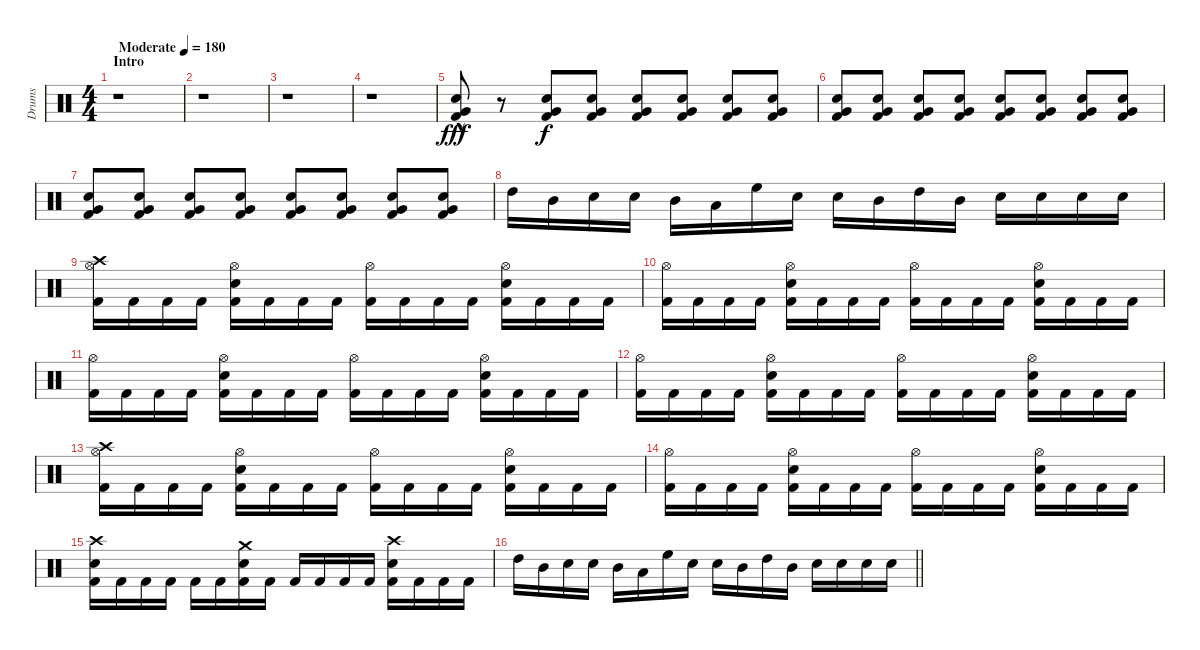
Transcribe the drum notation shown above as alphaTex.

\track ("Drums" "Drums") {instrument percussion}
\staff {score}
\articulation defaults
\ts (4 4)
\section ("" "Intro")
\tempo (180 "Moderate")
\clef neutral
\ks c
r.1{dy fff} |
r.1 |
r.1 |
r.1 |
("Very Low Tom (hit)"{hac} "Electric Snare (hit)"{hac} "Kick (hit) 2"{hac}).8 r.8{volume 0} ("Very Low Tom (hit)" "Electric Snare (hit)" "Kick (hit) 2").8{dy f volume 16} ("Very Low Tom (hit)" "Electric Snare (hit)" "Kick (hit) 2").8 ("Very Low Tom (hit)" "Electric Snare (hit)" "Kick (hit) 2").8 ("Very Low Tom (hit)" "Electric Snare (hit)" "Kick (hit) 2").8 ("Very Low Tom (hit)" "Electric Snare (hit)" "Kick (hit) 2").8 ("Very Low Tom (hit)" "Electric Snare (hit)" "Kick (hit) 2").8 |
("Very Low Tom (hit)" "Electric Snare (hit)" "Kick (hit) 2").8 ("Very Low Tom (hit)" "Electric Snare (hit)" "Kick (hit) 2").8 ("Very Low Tom (hit)" "Electric Snare (hit)" "Kick (hit) 2").8 ("Very Low Tom (hit)" "Electric Snare (hit)" "Kick (hit) 2").8 ("Very Low Tom (hit)" "Electric Snare (hit)" "Kick (hit) 2").8 ("Very Low Tom (hit)" "Electric Snare (hit)" "Kick (hit) 2").8 ("Very Low Tom (hit)" "Electric Snare (hit)" "Kick (hit) 2").8 ("Very Low Tom (hit)" "Electric Snare (hit)" "Kick (hit) 2").8 |
("Very Low Tom (hit)" "Electric Snare (hit)" "Kick (hit) 2").8 ("Very Low Tom (hit)" "Electric Snare (hit)" "Kick (hit) 2").8 ("Very Low Tom (hit)" "Electric Snare (hit)" "Kick (hit) 2").8 ("Very Low Tom (hit)" "Electric Snare (hit)" "Kick (hit) 2").8 ("Very Low Tom (hit)" "Electric Snare (hit)" "Kick (hit) 2").8 ("Very Low Tom (hit)" "Electric Snare (hit)" "Kick (hit) 2").8 ("Very Low Tom (hit)" "Electric Snare (hit)" "Kick (hit) 2").8 ("Very Low Tom (hit)" "Electric Snare (hit)" "Kick (hit) 2").8 |
"High Tom (hit)".16 "Mid Tom (hit)".16 "Electric Snare (hit)".16 "Electric Snare (hit)".16 "Mid Tom (hit)".16 "Low Tom (hit)".16 "High Floor Tom (hit)".16 "Electric Snare (hit)".16 "Electric Snare (hit)".16 "Mid Tom (hit)".16 "High Tom (hit)".16 "Mid Tom (hit)".16 "Electric Snare (hit)".16 "Electric Snare (hit)".16 "Electric Snare (hit)".16 "Electric Snare (hit)".16 |
("Crash high (hit)" "Hi-Hat (open)" "Kick (hit) 2").16 "Kick (hit) 2".16 "Kick (hit) 2".16 "Kick (hit) 2".16 ("Hi-Hat (open)" "Electric Snare (hit)" "Kick (hit) 2").16 "Kick (hit) 2".16 "Kick (hit) 2".16 "Kick (hit) 2".16 ("Hi-Hat (open)" "Kick (hit) 2").16 "Kick (hit) 2".16 "Kick (hit) 2".16 "Kick (hit) 2".16 ("Hi-Hat (open)" "Electric Snare (hit)" "Kick (hit) 2").16 "Kick (hit) 2".16 "Kick (hit) 2".16 "Kick (hit) 2".16 |
("Hi-Hat (open)" "Kick (hit) 2").16 "Kick (hit) 2".16 "Kick (hit) 2".16 "Kick (hit) 2".16 ("Hi-Hat (open)" "Electric Snare (hit)" "Kick (hit) 2").16 "Kick (hit) 2".16 "Kick (hit) 2".16 "Kick (hit) 2".16 ("Hi-Hat (open)" "Kick (hit) 2").16 "Kick (hit) 2".16 "Kick (hit) 2".16 "Kick (hit) 2".16 ("Hi-Hat (open)" "Electric Snare (hit)" "Kick (hit) 2").16 "Kick (hit) 2".16 "Kick (hit) 2".16 "Kick (hit) 2".16 |
("Hi-Hat (open)" "Kick (hit) 2").16 "Kick (hit) 2".16 "Kick (hit) 2".16 "Kick (hit) 2".16 ("Hi-Hat (open)" "Electric Snare (hit)" "Kick (hit) 2").16 "Kick (hit) 2".16 "Kick (hit) 2".16 "Kick (hit) 2".16 ("Hi-Hat (open)" "Kick (hit) 2").16 "Kick (hit) 2".16 "Kick (hit) 2".16 "Kick (hit) 2".16 ("Hi-Hat (open)" "Electric Snare (hit)" "Kick (hit) 2").16 "Kick (hit) 2".16 "Kick (hit) 2".16 "Kick (hit) 2".16 |
("Hi-Hat (open)" "Kick (hit) 2").16 "Kick (hit) 2".16 "Kick (hit) 2".16 "Kick (hit) 2".16 ("Hi-Hat (open)" "Electric Snare (hit)" "Kick (hit) 2").16 "Kick (hit) 2".16 "Kick (hit) 2".16 "Kick (hit) 2".16 ("Hi-Hat (open)" "Kick (hit) 2").16 "Kick (hit) 2".16 "Kick (hit) 2".16 "Kick (hit) 2".16 ("Hi-Hat (open)" "Electric Snare (hit)" "Kick (hit) 2").16 "Kick (hit) 2".16 "Kick (hit) 2".16 "Kick (hit) 2".16 |
("Crash high (hit)" "Hi-Hat (open)" "Kick (hit) 2").16 "Kick (hit) 2".16 "Kick (hit) 2".16 "Kick (hit) 2".16 ("Hi-Hat (open)" "Electric Snare (hit)" "Kick (hit) 2").16 "Kick (hit) 2".16 "Kick (hit) 2".16 "Kick (hit) 2".16 ("Hi-Hat (open)" "Kick (hit) 2").16 "Kick (hit) 2".16 "Kick (hit) 2".16 "Kick (hit) 2".16 ("Hi-Hat (open)" "Electric Snare (hit)" "Kick (hit) 2").16 "Kick (hit) 2".16 "Kick (hit) 2".16 "Kick (hit) 2".16 |
("Hi-Hat (open)" "Kick (hit) 2").16 "Kick (hit) 2".16 "Kick (hit) 2".16 "Kick (hit) 2".16 ("Hi-Hat (open)" "Electric Snare (hit)" "Kick (hit) 2").16 "Kick (hit) 2".16 "Kick (hit) 2".16 "Kick (hit) 2".16 ("Hi-Hat (open)" "Kick (hit) 2").16 "Kick (hit) 2".16 "Kick (hit) 2".16 "Kick (hit) 2".16 ("Hi-Hat (open)" "Electric Snare (hit)" "Kick (hit) 2").16 "Kick (hit) 2".16 "Kick (hit) 2".16 "Kick (hit) 2".16 |
("Crash high (hit)" "Electric Snare (hit)" "Kick (hit) 2").16 "Kick (hit) 2".16 "Kick (hit) 2".16 "Kick (hit) 2".16 "Kick (hit) 2".16 "Kick (hit) 2".16 ("Crash medium (hit)" "Electric Snare (hit)" "Kick (hit) 2").16 "Kick (hit) 2".16 "Kick (hit) 2".16 "Kick (hit) 2".16 "Kick (hit) 2".16 "Kick (hit) 2".16 ("Crash high (hit)" "Electric Snare (hit)" "Kick (hit) 2").16 "Kick (hit) 2".16 "Kick (hit) 2".16 "Kick (hit) 2".16 |
\barLineRight lightlight "High Tom (hit)".16 "Mid Tom (hit)".16 "Electric Snare (hit)".16 "Electric Snare (hit)".16 "Mid Tom (hit)".16 "Low Tom (hit)".16 "High Floor Tom (hit)".16 "Electric Snare (hit)".16 "Electric Snare (hit)".16 "Mid Tom (hit)".16 "High Tom (hit)".16 "Mid Tom (hit)".16 "Electric Snare (hit)".16 "Electric Snare (hit)".16 "Electric Snare (hit)".16 "Electric Snare (hit)".16
